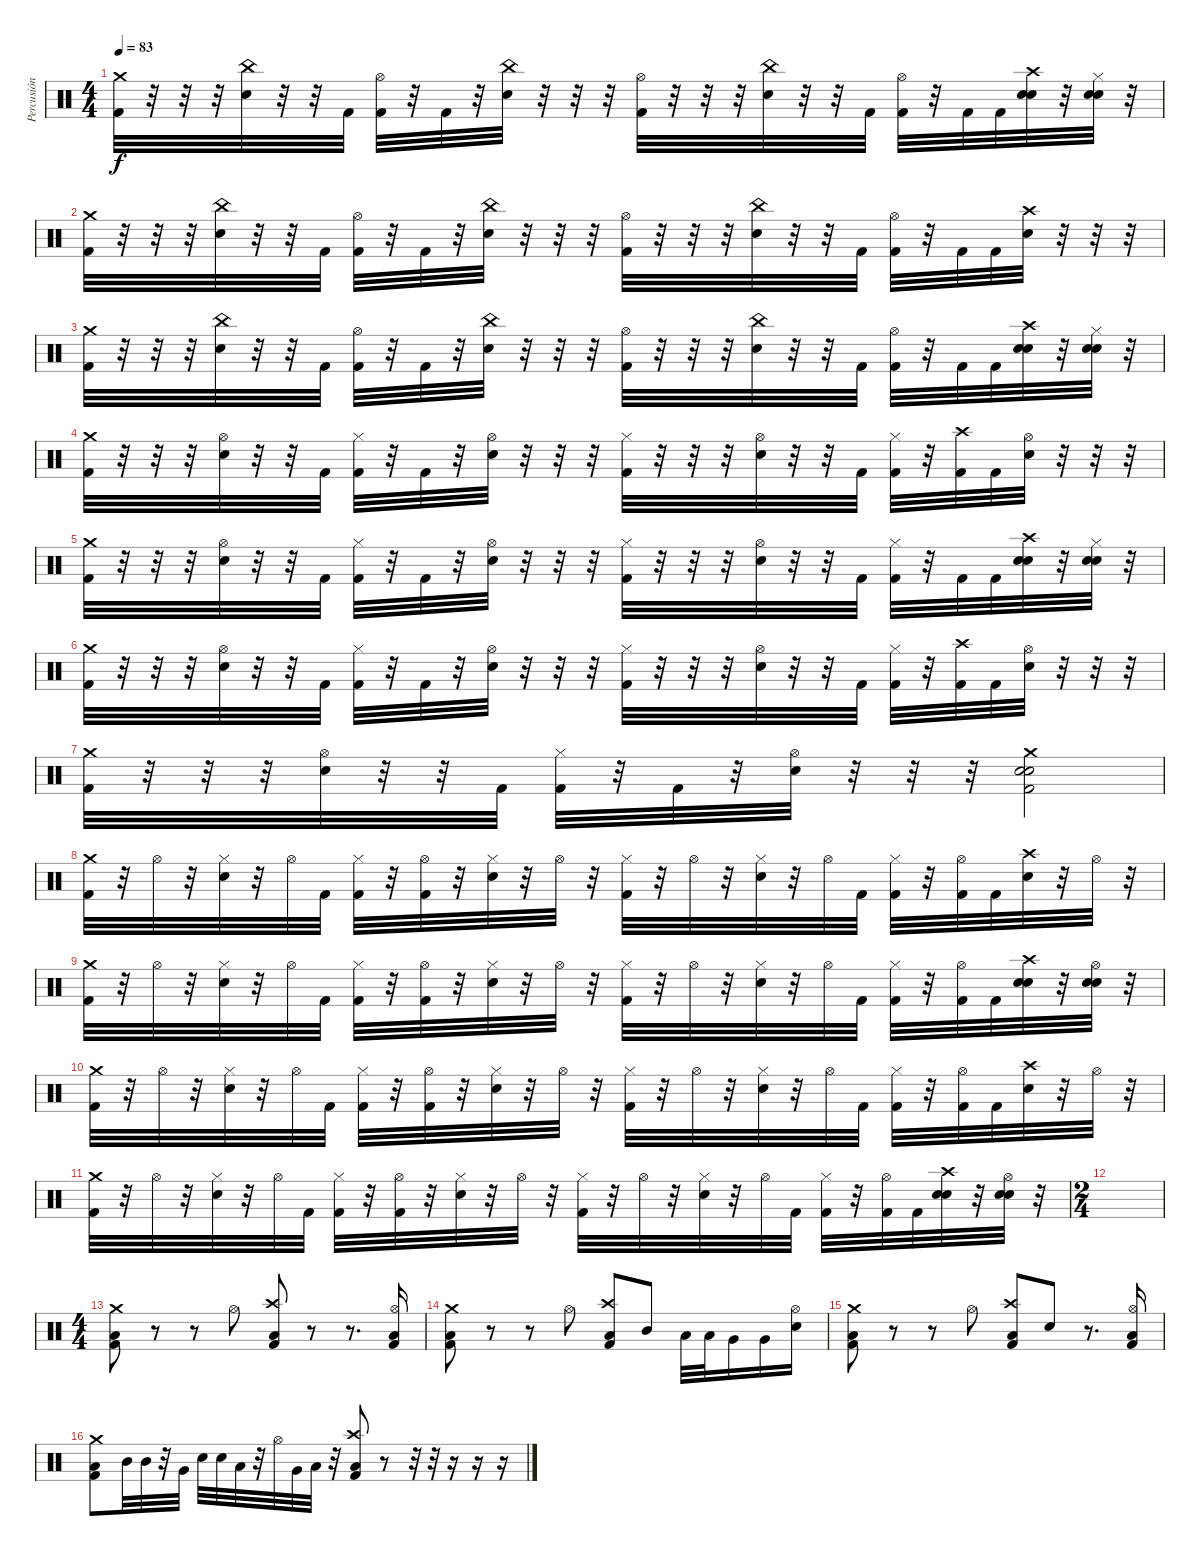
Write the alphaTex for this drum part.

\track ("Percusión" "Percusión") {instrument percussion}
\staff {score}
\articulation defaults
\ts (4 4)
\tempo 83
\clef neutral
\ks c
("Crash medium (hit)" "Kick (hit) 2").32{dy f} r.32 r.32 r.32 ("China (hit)" "Snare (hit) 2").32 r.32 r.32 "Kick (hit) 2".32 ("Hi-Hat (open)" "Kick (hit) 2").32 r.32 "Kick (hit) 2".32 r.32 ("China (hit)" "Snare (hit) 2").32 r.32 r.32 r.32 ("Hi-Hat (open)" "Kick (hit) 2").32 r.32 r.32 r.32 ("China (hit)" "Snare (hit) 2").32 r.32 r.32 "Kick (hit) 2".32 ("Hi-Hat (open)" "Kick (hit) 2").32 r.32 "Kick (hit) 2".32 "Kick (hit) 2".32 ("Crash high (hit)" "Hand Clap (hit)" "Snare (hit) 2").32 r.32 ("Hi-Hat (closed)" "Hand Clap (hit)" "Snare (hit) 2").32 r.32 |
("Crash medium (hit)" "Kick (hit) 2").32 r.32 r.32 r.32 ("China (hit)" "Snare (hit) 2").32 r.32 r.32 "Kick (hit) 2".32 ("Hi-Hat (open)" "Kick (hit) 2").32 r.32 "Kick (hit) 2".32 r.32 ("China (hit)" "Snare (hit) 2").32 r.32 r.32 r.32 ("Hi-Hat (open)" "Kick (hit) 2").32 r.32 r.32 r.32 ("China (hit)" "Snare (hit) 2").32 r.32 r.32 "Kick (hit) 2".32 ("Hi-Hat (open)" "Kick (hit) 2").32 r.32 "Kick (hit) 2".32 "Kick (hit) 2".32 ("Crash high (hit)" "Snare (hit) 2").32 r.32 r.32 r.32 |
("Crash medium (hit)" "Kick (hit) 2").32 r.32 r.32 r.32 ("China (hit)" "Snare (hit) 2").32 r.32 r.32 "Kick (hit) 2".32 ("Hi-Hat (open)" "Kick (hit) 2").32 r.32 "Kick (hit) 2".32 r.32 ("China (hit)" "Snare (hit) 2").32 r.32 r.32 r.32 ("Hi-Hat (open)" "Kick (hit) 2").32 r.32 r.32 r.32 ("China (hit)" "Snare (hit) 2").32 r.32 r.32 "Kick (hit) 2".32 ("Hi-Hat (open)" "Kick (hit) 2").32 r.32 "Kick (hit) 2".32 "Kick (hit) 2".32 ("Crash high (hit)" "Hand Clap (hit)" "Snare (hit) 2").32 r.32 ("Hi-Hat (closed)" "Hand Clap (hit)" "Snare (hit) 2").32 r.32 |
("Crash medium (hit)" "Kick (hit) 2").32 r.32 r.32 r.32 ("Hi-Hat (open)" "Snare (hit) 2").32 r.32 r.32 "Kick (hit) 2".32 ("Hi-Hat (closed)" "Kick (hit) 2").32 r.32 "Kick (hit) 2".32 r.32 ("Hi-Hat (open)" "Snare (hit) 2").32 r.32 r.32 r.32 ("Hi-Hat (closed)" "Kick (hit) 2").32 r.32 r.32 r.32 ("Hi-Hat (open)" "Snare (hit) 2").32 r.32 r.32 "Kick (hit) 2".32 ("Hi-Hat (closed)" "Kick (hit) 2").32 r.32 ("Crash high (hit)" "Kick (hit) 2").32 "Kick (hit) 2".32 ("Hi-Hat (open)" "Snare (hit) 2").32 r.32 r.32 r.32 |
("Crash medium (hit)" "Kick (hit) 2").32 r.32 r.32 r.32 ("Hi-Hat (open)" "Snare (hit) 2").32 r.32 r.32 "Kick (hit) 2".32 ("Hi-Hat (closed)" "Kick (hit) 2").32 r.32 "Kick (hit) 2".32 r.32 ("Hi-Hat (open)" "Snare (hit) 2").32 r.32 r.32 r.32 ("Hi-Hat (closed)" "Kick (hit) 2").32 r.32 r.32 r.32 ("Hi-Hat (open)" "Snare (hit) 2").32 r.32 r.32 "Kick (hit) 2".32 ("Hi-Hat (closed)" "Kick (hit) 2").32 r.32 "Kick (hit) 2".32 "Kick (hit) 2".32 ("Crash high (hit)" "Hand Clap (hit)" "Snare (hit) 2").32 r.32 ("Hi-Hat (closed)" "Hand Clap (hit)" "Snare (hit) 2").32 r.32 |
("Crash medium (hit)" "Kick (hit) 2").32 r.32 r.32 r.32 ("Hi-Hat (open)" "Snare (hit) 2").32 r.32 r.32 "Kick (hit) 2".32 ("Hi-Hat (closed)" "Kick (hit) 2").32 r.32 "Kick (hit) 2".32 r.32 ("Hi-Hat (open)" "Snare (hit) 2").32 r.32 r.32 r.32 ("Hi-Hat (closed)" "Kick (hit) 2").32 r.32 r.32 r.32 ("Hi-Hat (open)" "Snare (hit) 2").32 r.32 r.32 "Kick (hit) 2".32 ("Hi-Hat (closed)" "Kick (hit) 2").32 r.32 ("Crash high (hit)" "Kick (hit) 2").32 "Kick (hit) 2".32 ("Hi-Hat (open)" "Snare (hit) 2").32 r.32 r.32 r.32 |
("Crash medium (hit)" "Kick (hit) 2").32 r.32 r.32 r.32 ("Hi-Hat (open)" "Snare (hit) 2").32 r.32 r.32 "Kick (hit) 2".32 ("Hi-Hat (closed)" "Kick (hit) 2").32 r.32 "Kick (hit) 2".32 r.32 ("Hi-Hat (open)" "Snare (hit) 2").32 r.32 r.32 r.32 ("Crash medium (hit)" "Hand Clap (hit)" "Snare (hit) 2" "Kick (hit) 2").2 |
("Crash medium (hit)" "Kick (hit) 2").32 r.32 "Hi-Hat (open)".32 r.32 ("Hi-Hat (closed)" "Snare (hit) 2").32 r.32 "Hi-Hat (open)".32 "Kick (hit) 2".32 ("Hi-Hat (closed)" "Kick (hit) 2").32 r.32 ("Hi-Hat (open)" "Kick (hit) 2").32 r.32 ("Hi-Hat (closed)" "Snare (hit) 2").32 r.32 "Hi-Hat (open)".32 r.32 ("Hi-Hat (closed)" "Kick (hit) 2").32 r.32 "Hi-Hat (open)".32 r.32 ("Hi-Hat (closed)" "Snare (hit) 2").32 r.32 "Hi-Hat (open)".32 "Kick (hit) 2".32 ("Hi-Hat (closed)" "Kick (hit) 2").32 r.32 ("Hi-Hat (open)" "Kick (hit) 2").32 "Kick (hit) 2".32 ("Crash high (hit)" "Snare (hit) 2").32 r.32 "Hi-Hat (open)".32 r.32 |
("Crash medium (hit)" "Kick (hit) 2").32 r.32 "Hi-Hat (open)".32 r.32 ("Hi-Hat (closed)" "Snare (hit) 2").32 r.32 "Hi-Hat (open)".32 "Kick (hit) 2".32 ("Hi-Hat (closed)" "Kick (hit) 2").32 r.32 ("Hi-Hat (open)" "Kick (hit) 2").32 r.32 ("Hi-Hat (closed)" "Snare (hit) 2").32 r.32 "Hi-Hat (open)".32 r.32 ("Hi-Hat (closed)" "Kick (hit) 2").32 r.32 "Hi-Hat (open)".32 r.32 ("Hi-Hat (closed)" "Snare (hit) 2").32 r.32 "Hi-Hat (open)".32 "Kick (hit) 2".32 ("Hi-Hat (closed)" "Kick (hit) 2").32 r.32 ("Hi-Hat (open)" "Kick (hit) 2").32 "Kick (hit) 2".32 ("Crash high (hit)" "Hand Clap (hit)" "Snare (hit) 2").32 r.32 ("Hi-Hat (open)" "Hand Clap (hit)" "Snare (hit) 2").32 r.32 |
("Crash medium (hit)" "Kick (hit) 2").32 r.32 "Hi-Hat (open)".32 r.32 ("Hi-Hat (closed)" "Snare (hit) 2").32 r.32 "Hi-Hat (open)".32 "Kick (hit) 2".32 ("Hi-Hat (closed)" "Kick (hit) 2").32 r.32 ("Hi-Hat (open)" "Kick (hit) 2").32 r.32 ("Hi-Hat (closed)" "Snare (hit) 2").32 r.32 "Hi-Hat (open)".32 r.32 ("Hi-Hat (closed)" "Kick (hit) 2").32 r.32 "Hi-Hat (open)".32 r.32 ("Hi-Hat (closed)" "Snare (hit) 2").32 r.32 "Hi-Hat (open)".32 "Kick (hit) 2".32 ("Hi-Hat (closed)" "Kick (hit) 2").32 r.32 ("Hi-Hat (open)" "Kick (hit) 2").32 "Kick (hit) 2".32 ("Crash high (hit)" "Snare (hit) 2").32 r.32 "Hi-Hat (open)".32 r.32 |
("Crash medium (hit)" "Kick (hit) 2").32 r.32 "Hi-Hat (open)".32 r.32 ("Hi-Hat (closed)" "Snare (hit) 2").32 r.32 "Hi-Hat (open)".32 "Kick (hit) 2".32 ("Hi-Hat (closed)" "Kick (hit) 2").32 r.32 ("Hi-Hat (open)" "Kick (hit) 2").32 r.32 ("Hi-Hat (closed)" "Snare (hit) 2").32 r.32 "Hi-Hat (open)".32 r.32 ("Hi-Hat (closed)" "Kick (hit) 2").32 r.32 "Hi-Hat (open)".32 r.32 ("Hi-Hat (closed)" "Snare (hit) 2").32 r.32 "Hi-Hat (open)".32 "Kick (hit) 2".32 ("Hi-Hat (closed)" "Kick (hit) 2").32 r.32 ("Hi-Hat (open)" "Kick (hit) 2").32 "Kick (hit) 2".32 ("Crash high (hit)" "Hand Clap (hit)" "Snare (hit) 2").32 r.32 ("Hi-Hat (open)" "Hand Clap (hit)" "Snare (hit) 2").32 r.32 |
\ts (2 4)
|
\ts (4 4)
("Crash medium (hit)" "Low Floor Tom (hit)" "Kick (hit) 2").8 r.8 r.8 "Hi-Hat (open)".8 ("Crash high (hit)" "Low Floor Tom (hit)" "Kick (hit) 2").8 r.8 r.8{d} ("Hi-Hat (open)" "Low Floor Tom (hit)" "Kick (hit) 2").16 |
("Crash medium (hit)" "Low Floor Tom (hit)" "Kick (hit) 2").8 r.8 r.8 "Hi-Hat (open)".8 ("Crash high (hit)" "Low Floor Tom (hit)" "Kick (hit) 2").8 "Mid Tom (hit)".8 "Low Tom (hit)".32 "Low Tom (hit)".32 "Very Low Tom (hit)".16 "Very Low Tom (hit)".16 ("Hi-Hat (open)" "Snare (hit) 2").16 |
("Crash medium (hit)" "Low Floor Tom (hit)" "Kick (hit) 2").8 r.8 r.8 "Hi-Hat (open)".8 ("Crash high (hit)" "Low Floor Tom (hit)" "Kick (hit) 2").8 "Snare (hit) 2".8 r.8{d} ("Hi-Hat (open)" "Low Floor Tom (hit)" "Kick (hit) 2").16 |
("Crash medium (hit)" "Low Floor Tom (hit)" "Kick (hit) 2").8 "Mid Tom (hit)".32 "Mid Tom (hit)".32 r.32 "Very Low Tom (hit)".32 "Snare (hit) 2".32 "Snare (hit) 2".32 "Low Tom (hit)".32 r.32 "Hi-Hat (open)".32 "Very Low Tom (hit)".32 "Low Floor Tom (hit)".32 r.32 ("Crash high (hit)" "Low Floor Tom (hit)" "Kick (hit) 2").8 r.8 r.32 r.32 r.16 r.16 r.16
